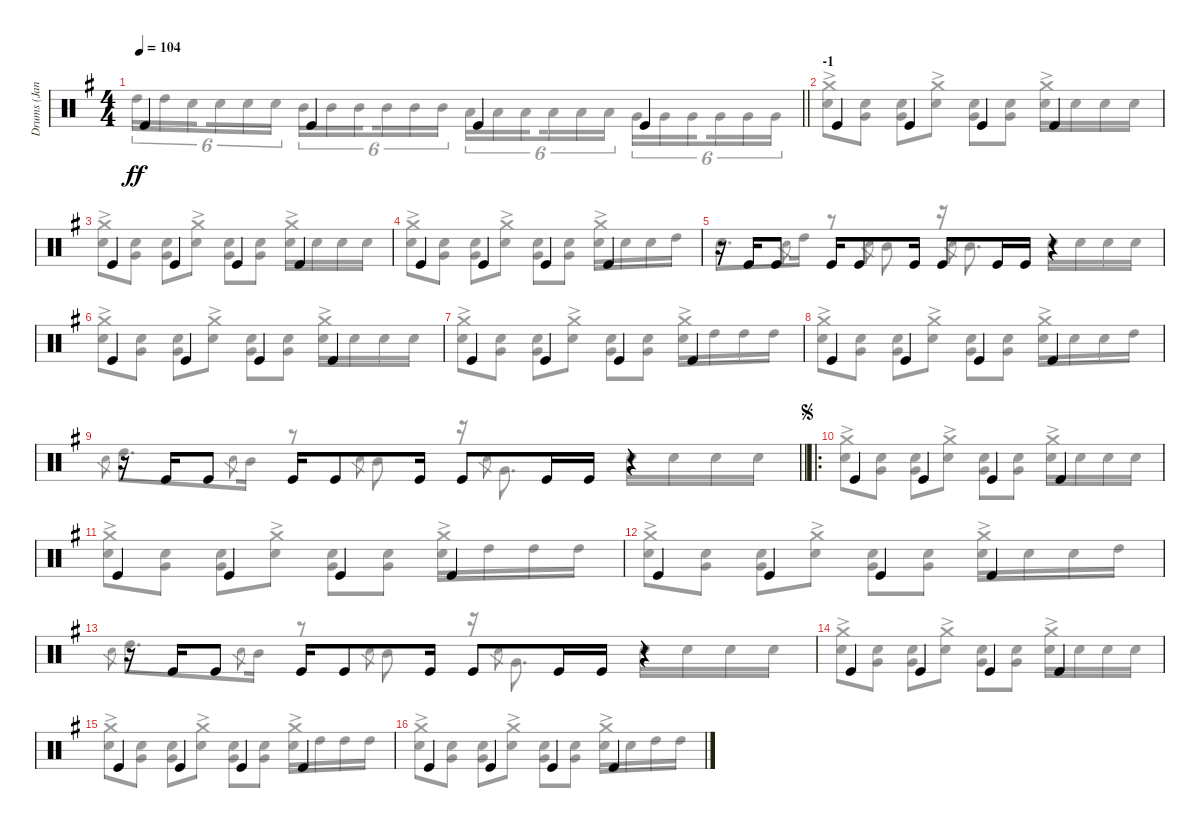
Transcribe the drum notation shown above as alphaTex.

\track ("Drums (Jane)" "Drums (Jan") {instrument percussion}
\staff {score}
\articulation defaults
\voice
\ts (4 4)
\tempo 104
\clef neutral
\barLineRight lightlight
\ks eminor "Kick (hit)".4{dy ff} "Kick (hit)".4 "Kick (hit)".4 "Kick (hit)".4
|
\section ("" "-1")
"Kick (hit)".4 "Kick (hit)".4 "Kick (hit)".4 "Kick (hit)".4 |
"Kick (hit)".4 "Kick (hit)".4 "Kick (hit)".4 "Kick (hit)".4 |
"Kick (hit)".4 "Kick (hit)".4 "Kick (hit)".4 "Kick (hit)".4 |
r.16 "Kick (hit)".16 "Kick (hit)".8 "Kick (hit)".16 "Kick (hit)".8 "Kick (hit)".16 "Kick (hit)".8 "Kick (hit)".16 "Kick (hit)".16 r.4 |
"Kick (hit)".4 "Kick (hit)".4 "Kick (hit)".4 "Kick (hit)".4 |
"Kick (hit)".4 "Kick (hit)".4 "Kick (hit)".4 "Kick (hit)".4 |
"Kick (hit)".4 "Kick (hit)".4 "Kick (hit)".4 "Kick (hit)".4 |
\barLineRight lightlight
r.16 "Kick (hit)".16 "Kick (hit)".8 "Kick (hit)".16 "Kick (hit)".8 "Kick (hit)".16 "Kick (hit)".8 "Kick (hit)".16 "Kick (hit)".16 r.4 |
\ro
\section ("" "")
\jump segno "Kick (hit)".4 "Kick (hit)".4 "Kick (hit)".4 "Kick (hit)".4
|
"Kick (hit)".4 "Kick (hit)".4 "Kick (hit)".4 "Kick (hit)".4 |
"Kick (hit)".4 "Kick (hit)".4 "Kick (hit)".4 "Kick (hit)".4 |
r.16 "Kick (hit)".16 "Kick (hit)".8 "Kick (hit)".16 "Kick (hit)".8 "Kick (hit)".16 "Kick (hit)".8 "Kick (hit)".16 "Kick (hit)".16 r.4 |
"Kick (hit)".4 "Kick (hit)".4 "Kick (hit)".4 "Kick (hit)".4 |
"Kick (hit)".4 "Kick (hit)".4 "Kick (hit)".4 "Kick (hit)".4 |
"Kick (hit)".4 "Kick (hit)".4 "Kick (hit)".4 "Kick (hit)".4
\voice
\clef neutral
\ottava regular
\simile none
\barLineRight lightlight
\ks eminor "High Tom (hit)".16{tu (6 4) dy ff} "High Tom (hit)".16{tu (6 4)} "Snare (hit) 2".16{tu (6 4) beam splitsecondary} "Snare (hit) 2".16{tu (6 4)} "Snare (hit) 2".16{tu (6 4)} "Snare (hit) 2".16{tu (6 4)} "Mid Tom (hit)".16{tu (6 4)} "Mid Tom (hit)".16{tu (6 4)} "Mid Tom (hit)".16{tu (6 4) beam splitsecondary} "Mid Tom (hit)".16{tu (6 4)} "Mid Tom (hit)".16{tu (6 4)} "Mid Tom (hit)".16{tu (6 4)} "Low Tom (hit)".16{tu (6 4)} "Low Tom (hit)".16{tu (6 4)} "Low Tom (hit)".16{tu (6 4) beam splitsecondary} "Low Tom (hit)".16{tu (6 4)} "Low Tom (hit)".16{tu (6 4)} "Low Tom (hit)".16{tu (6 4)} "Very Low Tom (hit)".16{tu (6 4)} "Very Low Tom (hit)".16{tu (6 4)} "Very Low Tom (hit)".16{tu (6 4) beam splitsecondary} "Very Low Tom (hit)".16{tu (6 4)} "Very Low Tom (hit)".16{tu (6 4)} "Very Low Tom (hit)".16{tu (6 4)}
|
("Snare (hit) 2" "Crash medium (hit)"{ac}).8 ("Snare (hit) 2" "Very Low Tom (hit)").8 ("Snare (hit) 2" "Very Low Tom (hit)").8 ("Snare (hit) 2" "Crash medium (hit)"{ac}).8 ("Snare (hit) 2" "Very Low Tom (hit)").8 ("Snare (hit) 2" "Very Low Tom (hit)").8 ("Snare (hit) 2" "Crash medium (hit)"{ac}).16 "Snare (hit) 2".16 "Snare (hit) 2".16 "Snare (hit) 2".16 |
("Snare (hit) 2" "Crash medium (hit)"{ac}).8 ("Snare (hit) 2" "Very Low Tom (hit)").8 ("Snare (hit) 2" "Very Low Tom (hit)").8 ("Snare (hit) 2" "Crash medium (hit)"{ac}).8 ("Snare (hit) 2" "Very Low Tom (hit)").8 ("Snare (hit) 2" "Very Low Tom (hit)").8 ("Snare (hit) 2" "Crash medium (hit)"{ac}).16 "Snare (hit) 2".16 "Snare (hit) 2".16 "Snare (hit) 2".16 |
("Snare (hit) 2" "Crash medium (hit)"{ac}).8 ("Snare (hit) 2" "Very Low Tom (hit)").8 ("Snare (hit) 2" "Very Low Tom (hit)").8 ("Snare (hit) 2" "Crash medium (hit)"{ac}).8 ("Snare (hit) 2" "Very Low Tom (hit)").8 ("Snare (hit) 2" "Very Low Tom (hit)").8 ("Snare (hit) 2" "Crash medium (hit)"{ac}).16 "Snare (hit) 2".16 "Snare (hit) 2".16 "High Tom (hit)".16 |
"Snare (hit) 2".8{d} "Snare (hit)".8{gr} "High Tom (hit)".16 r.8 "Snare (hit)".8{gr} "Mid Tom (hit)".8 r.16 "Snare (hit)".8{gr} "Mid Tom (hit)".8{d} "Snare (hit) 2".16 "Snare (hit) 2".16 "Snare (hit) 2".16 "Snare (hit) 2".16 |
("Snare (hit) 2" "Crash medium (hit)"{ac}).8 ("Snare (hit) 2" "Very Low Tom (hit)").8 ("Snare (hit) 2" "Very Low Tom (hit)").8 ("Snare (hit) 2" "Crash medium (hit)"{ac}).8 ("Snare (hit) 2" "Very Low Tom (hit)").8 ("Snare (hit) 2" "Very Low Tom (hit)").8 ("Snare (hit) 2" "Crash medium (hit)"{ac}).16 "Snare (hit) 2".16 "Snare (hit) 2".16 "Snare (hit) 2".16 |
("Snare (hit) 2" "Crash medium (hit)"{ac}).8 ("Snare (hit) 2" "Very Low Tom (hit)").8 ("Snare (hit) 2" "Very Low Tom (hit)").8 ("Snare (hit) 2" "Crash medium (hit)"{ac}).8 ("Snare (hit) 2" "Very Low Tom (hit)").8 ("Snare (hit) 2" "Very Low Tom (hit)").8 ("Snare (hit) 2" "Crash medium (hit)"{ac}).16 "High Tom (hit)".16 "High Tom (hit)".16 "High Tom (hit)".16 |
("Snare (hit) 2" "Crash medium (hit)"{ac}).8 ("Snare (hit) 2" "Very Low Tom (hit)").8 ("Snare (hit) 2" "Very Low Tom (hit)").8 ("Snare (hit) 2" "Crash medium (hit)"{ac}).8 ("Snare (hit) 2" "Very Low Tom (hit)").8 ("Snare (hit) 2" "Very Low Tom (hit)").8 ("Snare (hit) 2" "Crash medium (hit)"{ac}).16 "Snare (hit) 2".16 "Snare (hit) 2".16 "High Tom (hit)".16 |
\barLineRight lightlight "Snare (hit)".8{gr} "High Tom (hit)".8{d} "Snare (hit)".8{gr} "Mid Tom (hit)".16
r.8 "Snare (hit)".8{gr} "Mid Tom (hit)".8 r.16 "Snare (hit)".8{gr} "Very Low Tom (hit)".8{d} "Snare (hit) 2".16 "Snare (hit) 2".16 "Snare (hit) 2".16 "Snare (hit) 2".16 |
("Snare (hit) 2" "Crash medium (hit)"{ac}).8 ("Snare (hit) 2" "Very Low Tom (hit)").8 ("Snare (hit) 2" "Very Low Tom (hit)").8 ("Snare (hit) 2" "Crash medium (hit)"{ac}).8 ("Snare (hit) 2" "Very Low Tom (hit)").8 ("Snare (hit) 2" "Very Low Tom (hit)").8 ("Snare (hit) 2" "Crash medium (hit)"{ac}).16 "Snare (hit) 2".16 "Snare (hit) 2".16 "Snare (hit) 2".16 |
("Snare (hit) 2" "Crash medium (hit)"{ac}).8 ("Snare (hit) 2" "Very Low Tom (hit)").8 ("Snare (hit) 2" "Very Low Tom (hit)").8 ("Snare (hit) 2" "Crash medium (hit)"{ac}).8 ("Snare (hit) 2" "Very Low Tom (hit)").8 ("Snare (hit) 2" "Very Low Tom (hit)").8 ("Snare (hit) 2" "Crash medium (hit)"{ac}).16 "High Tom (hit)".16 "High Tom (hit)".16 "High Tom (hit)".16 |
("Snare (hit) 2" "Crash medium (hit)"{ac}).8 ("Snare (hit) 2" "Very Low Tom (hit)").8 ("Snare (hit) 2" "Very Low Tom (hit)").8 ("Snare (hit) 2" "Crash medium (hit)"{ac}).8 ("Snare (hit) 2" "Very Low Tom (hit)").8 ("Snare (hit) 2" "Very Low Tom (hit)").8 ("Snare (hit) 2" "Crash medium (hit)"{ac}).16 "Snare (hit) 2".16 "Snare (hit) 2".16 "High Tom (hit)".16 |
"Snare (hit)".8{gr} "High Tom (hit)".8{d} "Snare (hit)".8{gr} "Mid Tom (hit)".16 r.8 "Snare (hit)".8{gr} "Mid Tom (hit)".8 r.16 "Snare (hit)".8{gr} "Very Low Tom (hit)".8{d} "Snare (hit) 2".16 "Snare (hit) 2".16 "Snare (hit) 2".16 "Snare (hit) 2".16 |
("Snare (hit) 2" "Crash medium (hit)"{ac}).8 ("Snare (hit) 2" "Very Low Tom (hit)").8 ("Snare (hit) 2" "Very Low Tom (hit)").8 ("Snare (hit) 2" "Crash medium (hit)"{ac}).8 ("Snare (hit) 2" "Very Low Tom (hit)").8 ("Snare (hit) 2" "Very Low Tom (hit)").8 ("Snare (hit) 2" "Crash medium (hit)"{ac}).16 "Snare (hit) 2".16 "Snare (hit) 2".16 "Snare (hit) 2".16 |
("Snare (hit) 2" "Crash medium (hit)"{ac}).8 ("Snare (hit) 2" "Very Low Tom (hit)").8 ("Snare (hit) 2" "Very Low Tom (hit)").8 ("Snare (hit) 2" "Crash medium (hit)"{ac}).8 ("Snare (hit) 2" "Very Low Tom (hit)").8 ("Snare (hit) 2" "Very Low Tom (hit)").8 ("Snare (hit) 2" "Crash medium (hit)"{ac}).16 "High Tom (hit)".16 "High Tom (hit)".16 "High Tom (hit)".16 |
("Snare (hit) 2" "Crash medium (hit)"{ac}).8 ("Snare (hit) 2" "Very Low Tom (hit)").8 ("Snare (hit) 2" "Very Low Tom (hit)").8 ("Snare (hit) 2" "Crash medium (hit)"{ac}).8 ("Snare (hit) 2" "Very Low Tom (hit)").8 ("Snare (hit) 2" "Very Low Tom (hit)").8 ("Snare (hit) 2" "Crash medium (hit)"{ac}).16 "Snare (hit) 2".16 "High Tom (hit)".16 "High Tom (hit)".16
